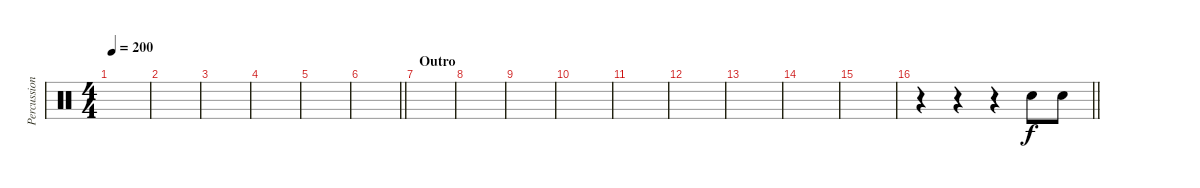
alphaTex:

\track ("Percussion" "Percussion") {instrument percussion}
\staff {score}
\articulation defaults
\ts (4 4)
\tempo 200
\clef neutral
\ks c
|
|
|
|
|
\barLineRight lightlight
|
\section ("" "Outro")
|
|
|
|
|
|
|
|
|
\barLineRight lightlight
r.4 r.4 r.4 "Snare (hit) 2".8 "Snare (hit) 2".8
